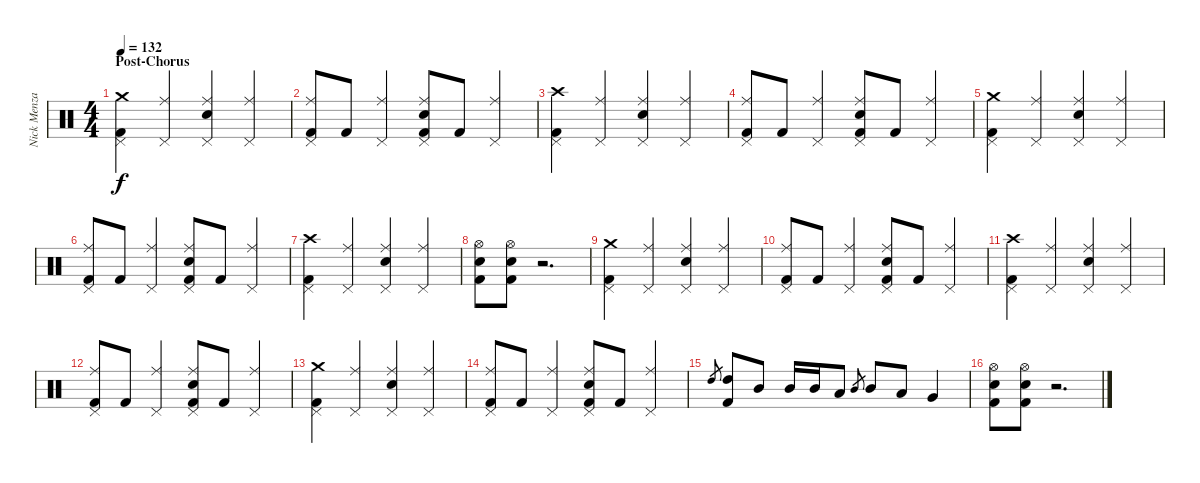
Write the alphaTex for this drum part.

\track ("Nick Menza" "Nick Menza") {instrument percussion}
\staff {score}
\articulation defaults
\ts (4 4)
\section ("" "Post-Chorus")
\tempo 132
\clef neutral
\ks c
("Crash medium (hit)" "Pedal Hi-Hat (hit)" "Kick (hit) 2").4{dy f} ("Ride (middle)" "Pedal Hi-Hat (hit)").4 ("Ride (middle)" "Pedal Hi-Hat (hit)" "Snare (hit) 2").4 ("Ride (middle)" "Pedal Hi-Hat (hit)").4 |
("Ride (middle)" "Pedal Hi-Hat (hit)" "Kick (hit) 2").8 "Kick (hit) 2".8 ("Ride (middle)" "Pedal Hi-Hat (hit)").4 ("Ride (middle)" "Pedal Hi-Hat (hit)" "Snare (hit) 2" "Kick (hit) 2").8 "Kick (hit) 2".8 ("Ride (middle)" "Pedal Hi-Hat (hit)").4 |
("Crash high (hit)" "Pedal Hi-Hat (hit)" "Kick (hit) 2").4 ("Ride (middle)" "Pedal Hi-Hat (hit)").4 ("Ride (middle)" "Pedal Hi-Hat (hit)" "Snare (hit) 2").4 ("Ride (middle)" "Pedal Hi-Hat (hit)").4 |
("Ride (middle)" "Pedal Hi-Hat (hit)" "Kick (hit) 2").8 "Kick (hit) 2".8 ("Ride (middle)" "Pedal Hi-Hat (hit)").4 ("Ride (middle)" "Pedal Hi-Hat (hit)" "Snare (hit) 2" "Kick (hit) 2").8 "Kick (hit) 2".8 ("Ride (middle)" "Pedal Hi-Hat (hit)").4 |
("Crash medium (hit)" "Pedal Hi-Hat (hit)" "Kick (hit) 2").4 ("Ride (middle)" "Pedal Hi-Hat (hit)").4 ("Ride (middle)" "Pedal Hi-Hat (hit)" "Snare (hit) 2").4 ("Ride (middle)" "Pedal Hi-Hat (hit)").4 |
("Ride (middle)" "Pedal Hi-Hat (hit)" "Kick (hit) 2").8 "Kick (hit) 2".8 ("Ride (middle)" "Pedal Hi-Hat (hit)").4 ("Ride (middle)" "Pedal Hi-Hat (hit)" "Snare (hit) 2" "Kick (hit) 2").8 "Kick (hit) 2".8 ("Ride (middle)" "Pedal Hi-Hat (hit)").4 |
("Crash high (hit)" "Pedal Hi-Hat (hit)" "Kick (hit) 2").4 ("Ride (middle)" "Pedal Hi-Hat (hit)").4 ("Ride (middle)" "Pedal Hi-Hat (hit)" "Snare (hit) 2").4 ("Ride (middle)" "Pedal Hi-Hat (hit)").4 |
("Hi-Hat (open)" "Snare (hit) 2" "Kick (hit) 2").8 ("Hi-Hat (open)" "Snare (hit) 2" "Kick (hit) 2").8 r.2{d volume 0} |
("Crash medium (hit)" "Pedal Hi-Hat (hit)" "Kick (hit) 2").4{volume 16} ("Ride (middle)" "Pedal Hi-Hat (hit)").4 ("Ride (middle)" "Pedal Hi-Hat (hit)" "Snare (hit) 2").4 ("Ride (middle)" "Pedal Hi-Hat (hit)").4 |
("Ride (middle)" "Pedal Hi-Hat (hit)" "Kick (hit) 2").8 "Kick (hit) 2".8 ("Ride (middle)" "Pedal Hi-Hat (hit)").4 ("Ride (middle)" "Pedal Hi-Hat (hit)" "Snare (hit) 2" "Kick (hit) 2").8 "Kick (hit) 2".8 ("Ride (middle)" "Pedal Hi-Hat (hit)").4 |
("Crash high (hit)" "Pedal Hi-Hat (hit)" "Kick (hit) 2").4 ("Ride (middle)" "Pedal Hi-Hat (hit)").4 ("Ride (middle)" "Pedal Hi-Hat (hit)" "Snare (hit) 2").4 ("Ride (middle)" "Pedal Hi-Hat (hit)").4 |
("Ride (middle)" "Pedal Hi-Hat (hit)" "Kick (hit) 2").8 "Kick (hit) 2".8 ("Ride (middle)" "Pedal Hi-Hat (hit)").4 ("Ride (middle)" "Pedal Hi-Hat (hit)" "Snare (hit) 2" "Kick (hit) 2").8 "Kick (hit) 2".8 ("Ride (middle)" "Pedal Hi-Hat (hit)").4 |
("Crash medium (hit)" "Pedal Hi-Hat (hit)" "Kick (hit) 2").4 ("Ride (middle)" "Pedal Hi-Hat (hit)").4 ("Ride (middle)" "Pedal Hi-Hat (hit)" "Snare (hit) 2").4 ("Ride (middle)" "Pedal Hi-Hat (hit)").4 |
("Ride (middle)" "Pedal Hi-Hat (hit)" "Kick (hit) 2").8 "Kick (hit) 2".8 ("Ride (middle)" "Pedal Hi-Hat (hit)").4 ("Ride (middle)" "Pedal Hi-Hat (hit)" "Snare (hit) 2" "Kick (hit) 2").8 "Kick (hit) 2".8 ("Ride (middle)" "Pedal Hi-Hat (hit)").4 |
"High Tom (hit)".8{gr} ("High Tom (hit)" "Kick (hit) 2").8 "Mid Tom (hit)".8 "Mid Tom (hit)".16 "Mid Tom (hit)".16 "Low Tom (hit)".8 "Mid Tom (hit)".8{gr} "Mid Tom (hit)".8 "Low Tom (hit)".8 "Very Low Tom (hit)".4 |
("Hi-Hat (open)" "Snare (hit) 2" "Kick (hit) 2").8 ("Hi-Hat (open)" "Snare (hit) 2" "Kick (hit) 2").8 r.2{d volume 0}
